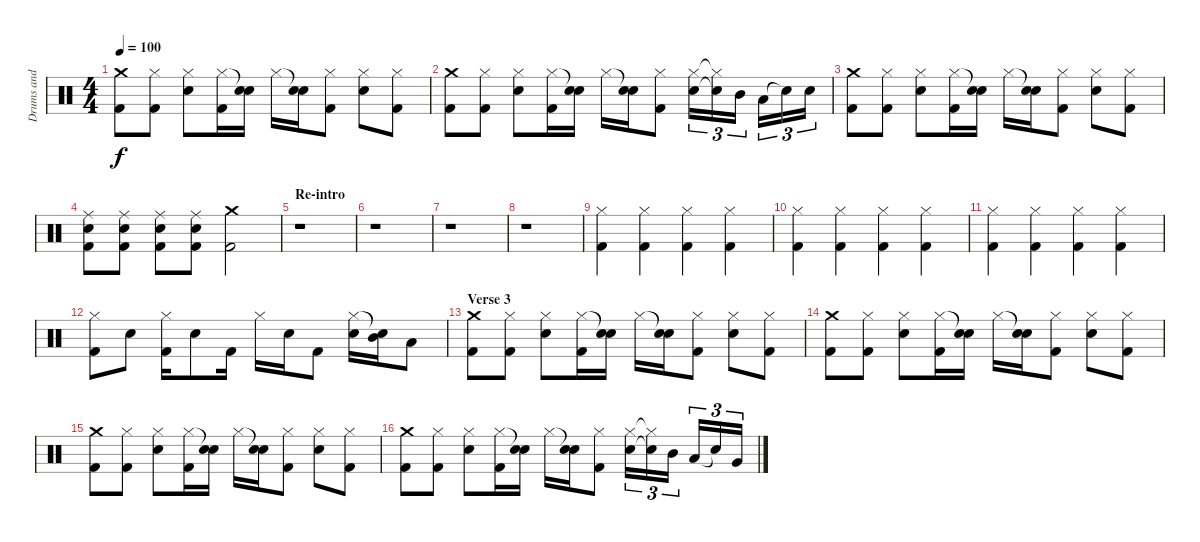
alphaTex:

\track ("Drums and Percussion" "Drums and ") {instrument percussion}
\staff {score}
\articulation defaults
\ts (4 4)
\tempo 100
\clef neutral
\ks c
("Crash medium (hit)" "Kick (hit) 2").8{dy f} ("Hi-Hat (closed)" "Kick (hit) 2").8 ("Hi-Hat (closed)" "Electric Snare (hit)").8 ("Hi-Hat (closed)" "Kick (hit) 2").16 ("Snare (hit)"{t} "Electric Snare (hit)").16 "Hi-Hat (closed)".16 ("Snare (hit)"{t} "Electric Snare (hit)").16 ("Hi-Hat (closed)" "Kick (hit) 2").8 ("Hi-Hat (closed)" "Electric Snare (hit)").8 ("Hi-Hat (closed)" "Kick (hit) 2").8 |
("Crash medium (hit)" "Kick (hit) 2").8 ("Hi-Hat (closed)" "Kick (hit) 2").8 ("Hi-Hat (closed)" "Electric Snare (hit)").8 ("Hi-Hat (closed)" "Kick (hit) 2").16 ("Snare (hit)"{t} "Electric Snare (hit)").16 "Hi-Hat (closed)".16 ("Snare (hit)"{t} "Electric Snare (hit)").16 ("Hi-Hat (closed)" "Kick (hit) 2").8 ("Hi-Hat (closed)" "Electric Snare (hit)").16{tu (3 2)} ("Hi-Hat (closed)"{t} "Snare (hit)"{t}).16{tu (3 2)} "Mid Tom (hit)".16{tu (3 2)} "Low Tom (hit)".16{tu (3 2)} "Snare (hit)"{t}.16{tu (3 2)} "Electric Snare (hit)".16{tu (3 2)} |
("Crash medium (hit)" "Kick (hit) 2").8 ("Hi-Hat (closed)" "Kick (hit) 2").8 ("Hi-Hat (closed)" "Electric Snare (hit)").8 ("Hi-Hat (closed)" "Kick (hit) 2").16 ("Snare (hit)"{t} "Electric Snare (hit)").16 "Hi-Hat (closed)".16 ("Snare (hit)"{t} "Electric Snare (hit)").16 ("Hi-Hat (closed)" "Kick (hit) 2").8 ("Hi-Hat (closed)" "Electric Snare (hit)").8 ("Hi-Hat (closed)" "Kick (hit) 2").8 |
("Ride (middle)" "Electric Snare (hit)" "Kick (hit) 2").8 ("Ride (middle)" "Electric Snare (hit)" "Kick (hit) 2").8 ("Ride (middle)" "Electric Snare (hit)" "Kick (hit) 2").8 ("Ride (middle)" "Electric Snare (hit)" "Kick (hit) 2").8 ("Crash medium (hit)" "Kick (hit) 2").2 |
\section ("" "Re-intro")
r.1 |
r.1 |
r.1 |
r.1 |
("Hi-Hat (closed)" "Kick (hit) 2").4 ("Hi-Hat (closed)" "Kick (hit) 2").4 ("Hi-Hat (closed)" "Kick (hit) 2").4 ("Hi-Hat (closed)" "Kick (hit) 2").4 |
("Hi-Hat (closed)" "Kick (hit) 2").4 ("Hi-Hat (closed)" "Kick (hit) 2").4 ("Hi-Hat (closed)" "Kick (hit) 2").4 ("Hi-Hat (closed)" "Kick (hit) 2").4 |
("Hi-Hat (closed)" "Kick (hit) 2").4 ("Hi-Hat (closed)" "Kick (hit) 2").4 ("Hi-Hat (closed)" "Kick (hit) 2").4 ("Hi-Hat (closed)" "Kick (hit) 2").4 |
("Hi-Hat (closed)" "Kick (hit) 2").8 "Electric Snare (hit)".8 ("Hi-Hat (closed)" "Kick (hit) 2").16 "Electric Snare (hit)".8 "Kick (hit) 2".16 "Hi-Hat (closed)".16 "Electric Snare (hit)".16 "Kick (hit) 2".8 ("Hi-Hat (closed)" "Electric Snare (hit)").16 ("Snare (hit)"{t} "Mid Tom (hit)").16 "Low Tom (hit)".8 |
\section ("" "Verse 3")
("Crash medium (hit)" "Kick (hit) 2").8 ("Hi-Hat (closed)" "Kick (hit) 2").8 ("Hi-Hat (closed)" "Electric Snare (hit)").8 ("Hi-Hat (closed)" "Kick (hit) 2").16 ("Snare (hit)"{t} "Electric Snare (hit)").16 "Hi-Hat (closed)".16 ("Snare (hit)"{t} "Electric Snare (hit)").16 ("Hi-Hat (closed)" "Kick (hit) 2").8 ("Hi-Hat (closed)" "Electric Snare (hit)").8 ("Hi-Hat (closed)" "Kick (hit) 2").8 |
("Crash medium (hit)" "Kick (hit) 2").8 ("Hi-Hat (closed)" "Kick (hit) 2").8 ("Hi-Hat (closed)" "Electric Snare (hit)").8 ("Hi-Hat (closed)" "Kick (hit) 2").16 ("Snare (hit)"{t} "Electric Snare (hit)").16 "Hi-Hat (closed)".16 ("Snare (hit)"{t} "Electric Snare (hit)").16 ("Hi-Hat (closed)" "Kick (hit) 2").8 ("Hi-Hat (closed)" "Electric Snare (hit)").8 ("Hi-Hat (closed)" "Kick (hit) 2").8 |
("Crash medium (hit)" "Kick (hit) 2").8 ("Hi-Hat (closed)" "Kick (hit) 2").8 ("Hi-Hat (closed)" "Electric Snare (hit)").8 ("Hi-Hat (closed)" "Kick (hit) 2").16 ("Snare (hit)"{t} "Electric Snare (hit)").16 "Hi-Hat (closed)".16 ("Snare (hit)"{t} "Electric Snare (hit)").16 ("Hi-Hat (closed)" "Kick (hit) 2").8 ("Hi-Hat (closed)" "Electric Snare (hit)").8 ("Hi-Hat (closed)" "Kick (hit) 2").8 |
("Crash medium (hit)" "Kick (hit) 2").8 ("Hi-Hat (closed)" "Kick (hit) 2").8 ("Hi-Hat (closed)" "Electric Snare (hit)").8 ("Hi-Hat (closed)" "Kick (hit) 2").16 ("Snare (hit)"{t} "Electric Snare (hit)").16 "Hi-Hat (closed)".16 ("Snare (hit)"{t} "Electric Snare (hit)").16 ("Hi-Hat (closed)" "Kick (hit) 2").8 ("Hi-Hat (closed)" "Electric Snare (hit)").16{tu (3 2)} ("Hi-Hat (closed)"{t} "Snare (hit)"{t}).16{tu (3 2)} "Mid Tom (hit)".16{tu (3 2)} "Low Tom (hit)".16{tu (3 2)} "Snare (hit)"{t}.16{tu (3 2)} "Very Low Tom (hit)".16{tu (3 2)}
